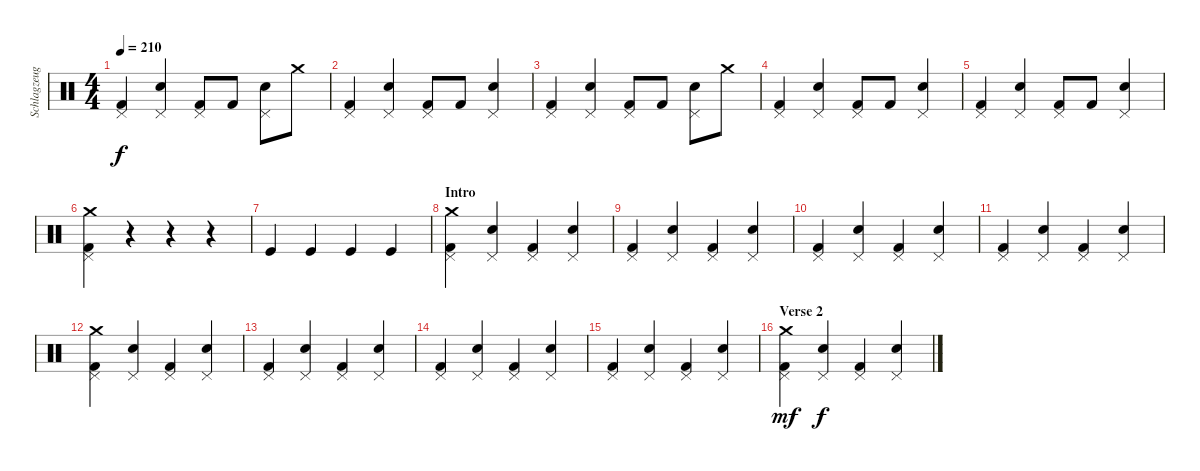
\track ("Schlagzeug" "Schlagzeug") {instrument percussion}
\staff {score}
\articulation defaults
\ts (4 4)
\tempo 210
\clef neutral
\ks c
("Pedal Hi-Hat (hit)" "Kick (hit) 2").4{dy f} ("Pedal Hi-Hat (hit)" "Electric Snare (hit)").4 ("Pedal Hi-Hat (hit)" "Kick (hit) 2").8 "Kick (hit) 2".8 ("Pedal Hi-Hat (hit)" "Electric Snare (hit)").8 "Crash medium (hit)".8 |
("Pedal Hi-Hat (hit)" "Kick (hit) 2").4 ("Pedal Hi-Hat (hit)" "Electric Snare (hit)").4 ("Pedal Hi-Hat (hit)" "Kick (hit) 2").8 "Kick (hit) 2".8 ("Pedal Hi-Hat (hit)" "Electric Snare (hit)").4 |
("Pedal Hi-Hat (hit)" "Kick (hit) 2").4 ("Pedal Hi-Hat (hit)" "Electric Snare (hit)").4 ("Pedal Hi-Hat (hit)" "Kick (hit) 2").8 "Kick (hit) 2".8 ("Pedal Hi-Hat (hit)" "Electric Snare (hit)").8 "Crash medium (hit)".8 |
("Pedal Hi-Hat (hit)" "Kick (hit) 2").4 ("Pedal Hi-Hat (hit)" "Electric Snare (hit)").4 ("Pedal Hi-Hat (hit)" "Kick (hit) 2").8 "Kick (hit) 2".8 ("Pedal Hi-Hat (hit)" "Electric Snare (hit)").4 |
("Pedal Hi-Hat (hit)" "Kick (hit) 2").4 ("Pedal Hi-Hat (hit)" "Electric Snare (hit)").4 ("Pedal Hi-Hat (hit)" "Kick (hit) 2").8 "Kick (hit) 2".8 ("Pedal Hi-Hat (hit)" "Electric Snare (hit)").4 |
("Pedal Hi-Hat (hit)" "Kick (hit) 2" "Crash medium (hit)").4 r.4 r.4 r.4 |
"Kick (hit)".4 "Kick (hit)".4 "Kick (hit)".4 "Kick (hit)".4 |
\section ("" "Intro")
("Pedal Hi-Hat (hit)" "Kick (hit) 2" "Crash medium (hit)").4 ("Pedal Hi-Hat (hit)" "Electric Snare (hit)").4 ("Pedal Hi-Hat (hit)" "Kick (hit) 2").4 ("Pedal Hi-Hat (hit)" "Electric Snare (hit)").4 |
("Pedal Hi-Hat (hit)" "Kick (hit) 2").4 ("Pedal Hi-Hat (hit)" "Electric Snare (hit)").4 ("Pedal Hi-Hat (hit)" "Kick (hit) 2").4 ("Pedal Hi-Hat (hit)" "Electric Snare (hit)").4 |
("Pedal Hi-Hat (hit)" "Kick (hit) 2").4 ("Pedal Hi-Hat (hit)" "Electric Snare (hit)").4 ("Pedal Hi-Hat (hit)" "Kick (hit) 2").4 ("Pedal Hi-Hat (hit)" "Electric Snare (hit)").4 |
("Pedal Hi-Hat (hit)" "Kick (hit) 2").4 ("Pedal Hi-Hat (hit)" "Electric Snare (hit)").4 ("Pedal Hi-Hat (hit)" "Kick (hit) 2").4 ("Pedal Hi-Hat (hit)" "Electric Snare (hit)").4 |
("Pedal Hi-Hat (hit)" "Kick (hit) 2" "Crash medium (hit)").4 ("Pedal Hi-Hat (hit)" "Electric Snare (hit)").4 ("Pedal Hi-Hat (hit)" "Kick (hit) 2").4 ("Pedal Hi-Hat (hit)" "Electric Snare (hit)").4 |
("Pedal Hi-Hat (hit)" "Kick (hit) 2").4 ("Pedal Hi-Hat (hit)" "Electric Snare (hit)").4 ("Pedal Hi-Hat (hit)" "Kick (hit) 2").4 ("Pedal Hi-Hat (hit)" "Electric Snare (hit)").4 |
("Pedal Hi-Hat (hit)" "Kick (hit) 2").4 ("Pedal Hi-Hat (hit)" "Electric Snare (hit)").4 ("Pedal Hi-Hat (hit)" "Kick (hit) 2").4 ("Pedal Hi-Hat (hit)" "Electric Snare (hit)").4 |
("Pedal Hi-Hat (hit)" "Kick (hit) 2").4 ("Pedal Hi-Hat (hit)" "Electric Snare (hit)").4 ("Pedal Hi-Hat (hit)" "Kick (hit) 2").4 ("Pedal Hi-Hat (hit)" "Electric Snare (hit)").4 |
\section ("" "Verse 2")
("Pedal Hi-Hat (hit)" "Crash medium (hit)" "Kick (hit) 2").4{dy mf} ("Pedal Hi-Hat (hit)" "Electric Snare (hit)").4{dy f} ("Pedal Hi-Hat (hit)" "Kick (hit) 2").4 ("Pedal Hi-Hat (hit)" "Electric Snare (hit)").4
